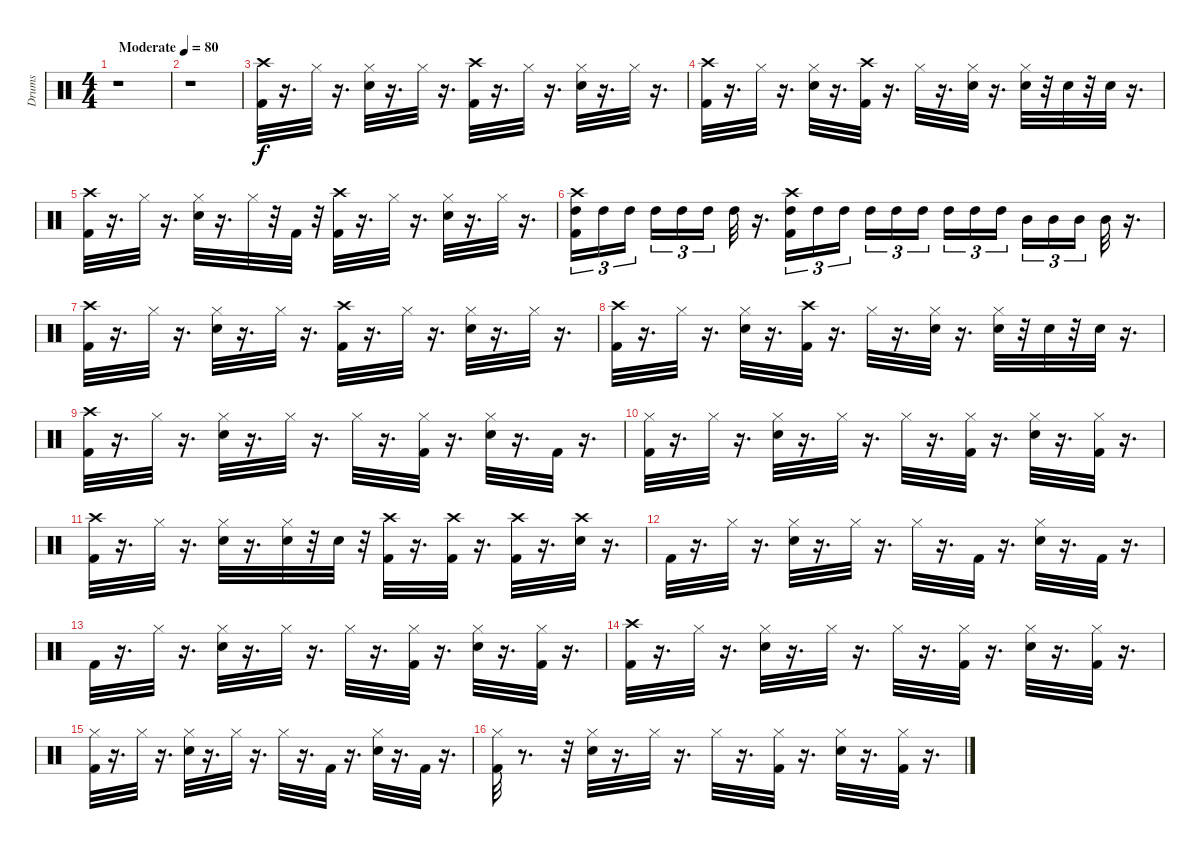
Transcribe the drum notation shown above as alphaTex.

\track ("Drums" "Drums") {instrument percussion}
\staff {score}
\articulation defaults
\ts (4 4)
\tempo (80 "Moderate")
\clef neutral
\ks c
r.1{dy f} |
r.1 |
("Crash high (hit)" "Kick (hit) 2").32 r.16{d} "Hi-Hat (closed)".32 r.16{d} ("Hi-Hat (closed)" "Snare (hit) 2").32 r.16{d} "Hi-Hat (closed)".32 r.16{d} ("Crash high (hit)" "Kick (hit) 2").32 r.16{d} "Hi-Hat (closed)".32 r.16{d} ("Hi-Hat (closed)" "Snare (hit) 2").32 r.16{d} "Hi-Hat (closed)".32 r.16{d} |
("Crash high (hit)" "Kick (hit) 2").32 r.16{d} "Hi-Hat (closed)".32 r.16{d} ("Hi-Hat (closed)" "Snare (hit) 2").32 r.16{d} ("Crash high (hit)" "Kick (hit) 2").32 r.16{d} "Hi-Hat (closed)".32 r.16{d} ("Hi-Hat (closed)" "Snare (hit) 2").32 r.16{d} ("Hi-Hat (closed)" "Snare (hit) 2").32 r.32 "Snare (hit) 2".32 r.32 "Snare (hit) 2".32 r.16{d} |
("Crash high (hit)" "Kick (hit) 2").32 r.16{d} "Hi-Hat (closed)".32 r.16{d} ("Hi-Hat (closed)" "Snare (hit) 2").32 r.16{d} "Hi-Hat (closed)".32 r.32 "Kick (hit) 2".32 r.32 ("Crash high (hit)" "Kick (hit) 2").32 r.16{d} "Hi-Hat (closed)".32 r.16{d} ("Hi-Hat (closed)" "Snare (hit) 2").32 r.16{d} "Hi-Hat (closed)".32 r.16{d} |
("High Tom (hit)" "Kick (hit) 2" "Crash high (hit)").16{tu (3 2)} "High Tom (hit)".16{tu (3 2)} "High Tom (hit)".16{tu (3 2)} "High Tom (hit)".16{tu (3 2)} "High Tom (hit)".16{tu (3 2)} "High Tom (hit)".16{tu (3 2)} "High Tom (hit)".32 r.16{d} ("High Tom (hit)" "Kick (hit) 2" "Crash high (hit)").16{tu (3 2)} "High Tom (hit)".16{tu (3 2)} "High Tom (hit)".16{tu (3 2)} "High Tom (hit)".16{tu (3 2)} "High Tom (hit)".16{tu (3 2)} "High Tom (hit)".16{tu (3 2)} "High Tom (hit)".16{tu (3 2)} "High Tom (hit)".16{tu (3 2)} "High Tom (hit)".16{tu (3 2)} "Mid Tom (hit)".16{tu (3 2)} "Mid Tom (hit)".16{tu (3 2)} "Mid Tom (hit)".16{tu (3 2)} "Mid Tom (hit)".32 r.16{d} |
("Crash high (hit)" "Kick (hit) 2").32 r.16{d} "Hi-Hat (closed)".32 r.16{d} ("Hi-Hat (closed)" "Snare (hit) 2").32 r.16{d} "Hi-Hat (closed)".32 r.16{d} ("Crash high (hit)" "Kick (hit) 2").32 r.16{d} "Hi-Hat (closed)".32 r.16{d} ("Hi-Hat (closed)" "Snare (hit) 2").32 r.16{d} "Hi-Hat (closed)".32 r.16{d} |
("Crash high (hit)" "Kick (hit) 2").32 r.16{d} "Hi-Hat (closed)".32 r.16{d} ("Hi-Hat (closed)" "Snare (hit) 2").32 r.16{d} ("Crash high (hit)" "Kick (hit) 2").32 r.16{d} "Hi-Hat (closed)".32 r.16{d} ("Hi-Hat (closed)" "Snare (hit) 2").32 r.16{d} ("Hi-Hat (closed)" "Snare (hit) 2").32 r.32 "Snare (hit) 2".32 r.32 "Snare (hit) 2".32 r.16{d} |
("Crash high (hit)" "Kick (hit) 2").32 r.16{d} "Hi-Hat (closed)".32 r.16{d} ("Hi-Hat (closed)" "Snare (hit) 2").32 r.16{d} "Hi-Hat (closed)".32 r.16{d} "Hi-Hat (closed)".32 r.16{d} ("Hi-Hat (closed)" "Kick (hit) 2").32 r.16{d} ("Hi-Hat (closed)" "Snare (hit) 2").32 r.16{d} "Kick (hit) 2".32 r.16{d} |
("Hi-Hat (closed)" "Kick (hit) 2").32 r.16{d} "Hi-Hat (closed)".32 r.16{d} ("Hi-Hat (closed)" "Snare (hit) 2").32 r.16{d} "Hi-Hat (closed)".32 r.16{d} "Hi-Hat (closed)".32 r.16{d} ("Hi-Hat (closed)" "Kick (hit) 2").32 r.16{d} ("Hi-Hat (closed)" "Snare (hit) 2").32 r.16{d} ("Hi-Hat (closed)" "Kick (hit) 2").32 r.16{d} |
("Crash high (hit)" "Kick (hit) 2").32 r.16{d} "Hi-Hat (closed)".32 r.16{d} ("Hi-Hat (closed)" "Snare (hit) 2").32 r.16{d} ("Hi-Hat (closed)" "Snare (hit) 2").32 r.32 "Snare (hit) 2".32 r.32 ("Crash high (hit)" "Kick (hit) 2").32 r.16{d} ("Crash high (hit)" "Kick (hit) 2").32 r.16{d} ("Crash high (hit)" "Kick (hit) 2").32 r.16{d} ("Crash high (hit)" "Snare (hit) 2").32 r.16{d} |
"Kick (hit) 2".32 r.16{d} "Hi-Hat (closed)".32 r.16{d} ("Hi-Hat (closed)" "Snare (hit) 2").32 r.16{d} "Hi-Hat (closed)".32 r.16{d} "Hi-Hat (closed)".32 r.16{d} "Kick (hit) 2".32 r.16{d} ("Hi-Hat (closed)" "Snare (hit) 2").32 r.16{d} "Kick (hit) 2".32 r.16{d} |
"Kick (hit) 2".32 r.16{d} "Hi-Hat (closed)".32 r.16{d} ("Hi-Hat (closed)" "Snare (hit) 2").32 r.16{d} "Hi-Hat (closed)".32 r.16{d} "Hi-Hat (closed)".32 r.16{d} ("Hi-Hat (closed)" "Kick (hit) 2").32 r.16{d} ("Hi-Hat (closed)" "Snare (hit) 2").32 r.16{d} ("Hi-Hat (closed)" "Kick (hit) 2").32 r.16{d} |
("Crash high (hit)" "Kick (hit) 2").32 r.16{d} "Hi-Hat (closed)".32 r.16{d} ("Hi-Hat (closed)" "Snare (hit) 2").32 r.16{d} "Hi-Hat (closed)".32 r.16{d} "Hi-Hat (closed)".32 r.16{d} ("Hi-Hat (closed)" "Kick (hit) 2").32 r.16{d} ("Hi-Hat (closed)" "Snare (hit) 2").32 r.16{d} ("Hi-Hat (closed)" "Kick (hit) 2").32 r.16{d} |
("Hi-Hat (closed)" "Kick (hit) 2").32 r.16{d} "Hi-Hat (closed)".32 r.16{d} ("Hi-Hat (closed)" "Snare (hit) 2").32 r.16{d} "Hi-Hat (closed)".32 r.16{d} "Hi-Hat (closed)".32 r.16{d} "Kick (hit) 2".32 r.16{d} ("Hi-Hat (closed)" "Snare (hit) 2").32 r.16{d} "Kick (hit) 2".32 r.16{d} |
("Hi-Hat (closed)" "Kick (hit) 2").32 r.8{d} r.32 ("Hi-Hat (closed)" "Snare (hit) 2").32 r.16{d} "Hi-Hat (closed)".32 r.16{d} "Hi-Hat (closed)".32 r.16{d} ("Hi-Hat (closed)" "Kick (hit) 2").32 r.16{d} ("Hi-Hat (closed)" "Snare (hit) 2").32 r.16{d} ("Hi-Hat (closed)" "Kick (hit) 2").32 r.16{d}
